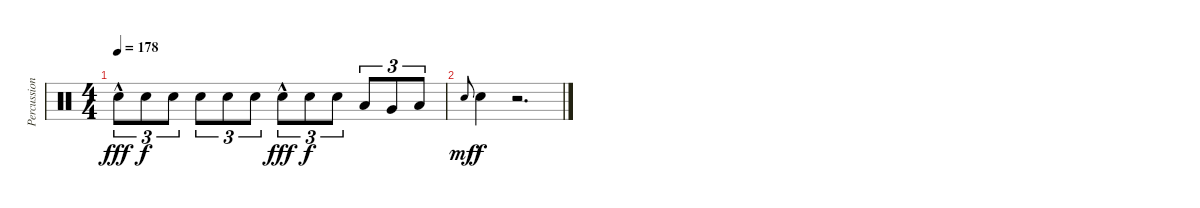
\track ("Percussion" "Percussion") {instrument percussion}
\staff {score}
\articulation defaults
\ts (4 4)
\tempo 178
\clef neutral
\ks c "Snare (hit) 2"{hac}.8{tu (3 2) dy fff} "Snare (hit) 2".8{tu (3 2) dy f} "Snare (hit) 2".8{tu (3 2)} "Snare (hit) 2".8{tu (3 2)} "Snare (hit) 2".8{tu (3 2)} "Snare (hit) 2".8{tu (3 2)} "Snare (hit) 2"{hac}.8{tu (3 2) dy fff} "Snare (hit) 2".8{tu (3 2) dy f} "Snare (hit) 2".8{tu (3 2)} "Low Tom (hit)".8{tu (3 2)} "Very Low Tom (hit)".8{tu (3 2)} "Low Floor Tom (hit)".8{tu (3 2)}
|
"Snare (hit) 2".8{gr onbeat dy mf} "Snare (hit) 2".4{dy f} r.2{d}
